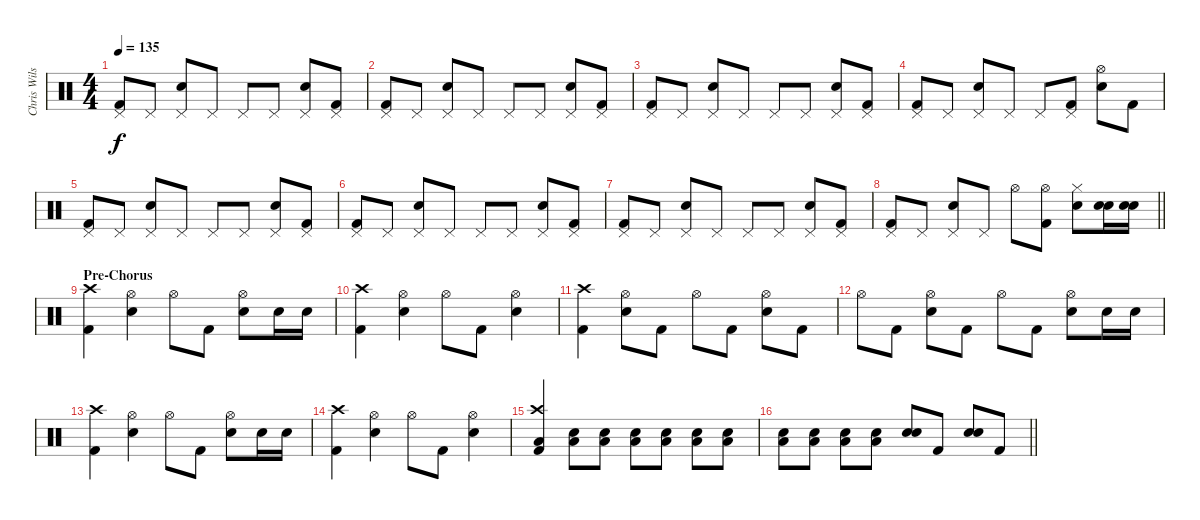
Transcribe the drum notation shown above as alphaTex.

\track ("Chris Wilson - Drums" "Chris Wils") {instrument percussion}
\staff {score}
\articulation defaults
\ts (4 4)
\tempo 135
\clef neutral
\ks c
("Pedal Hi-Hat (hit)" "Kick (hit) 2").8{dy f} "Pedal Hi-Hat (hit)".8 ("Pedal Hi-Hat (hit)" "Snare (hit) 2").8 "Pedal Hi-Hat (hit)".8 "Pedal Hi-Hat (hit)".8 "Pedal Hi-Hat (hit)".8 ("Pedal Hi-Hat (hit)" "Snare (hit) 2").8 ("Pedal Hi-Hat (hit)" "Kick (hit) 2").8 |
("Pedal Hi-Hat (hit)" "Kick (hit) 2").8 "Pedal Hi-Hat (hit)".8 ("Pedal Hi-Hat (hit)" "Snare (hit) 2").8 "Pedal Hi-Hat (hit)".8 "Pedal Hi-Hat (hit)".8 "Pedal Hi-Hat (hit)".8 ("Pedal Hi-Hat (hit)" "Snare (hit) 2").8 ("Pedal Hi-Hat (hit)" "Kick (hit) 2").8 |
("Pedal Hi-Hat (hit)" "Kick (hit) 2").8 "Pedal Hi-Hat (hit)".8 ("Pedal Hi-Hat (hit)" "Snare (hit) 2").8 "Pedal Hi-Hat (hit)".8 "Pedal Hi-Hat (hit)".8 "Pedal Hi-Hat (hit)".8 ("Pedal Hi-Hat (hit)" "Snare (hit) 2").8 ("Pedal Hi-Hat (hit)" "Kick (hit) 2").8 |
("Pedal Hi-Hat (hit)" "Kick (hit) 2").8 "Pedal Hi-Hat (hit)".8 ("Pedal Hi-Hat (hit)" "Snare (hit) 2").8 "Pedal Hi-Hat (hit)".8 "Pedal Hi-Hat (hit)".8 ("Pedal Hi-Hat (hit)" "Kick (hit) 2").8 ("Hi-Hat (open)" "Snare (hit) 2").8 "Kick (hit) 2".8 |
("Pedal Hi-Hat (hit)" "Kick (hit) 2").8 "Pedal Hi-Hat (hit)".8 ("Pedal Hi-Hat (hit)" "Snare (hit) 2").8 "Pedal Hi-Hat (hit)".8 "Pedal Hi-Hat (hit)".8 "Pedal Hi-Hat (hit)".8 ("Pedal Hi-Hat (hit)" "Snare (hit) 2").8 ("Pedal Hi-Hat (hit)" "Kick (hit) 2").8 |
("Pedal Hi-Hat (hit)" "Kick (hit) 2").8 "Pedal Hi-Hat (hit)".8 ("Pedal Hi-Hat (hit)" "Snare (hit) 2").8 "Pedal Hi-Hat (hit)".8 "Pedal Hi-Hat (hit)".8 "Pedal Hi-Hat (hit)".8 ("Pedal Hi-Hat (hit)" "Snare (hit) 2").8 ("Pedal Hi-Hat (hit)" "Kick (hit) 2").8 |
("Pedal Hi-Hat (hit)" "Kick (hit) 2").8 "Pedal Hi-Hat (hit)".8 ("Pedal Hi-Hat (hit)" "Snare (hit) 2").8 "Pedal Hi-Hat (hit)".8 "Pedal Hi-Hat (hit)".8 "Pedal Hi-Hat (hit)".8 ("Pedal Hi-Hat (hit)" "Snare (hit) 2").8 ("Pedal Hi-Hat (hit)" "Kick (hit) 2").8 |
\barLineRight lightlight
("Pedal Hi-Hat (hit)" "Kick (hit) 2").8 "Pedal Hi-Hat (hit)".8 ("Pedal Hi-Hat (hit)" "Snare (hit) 2").8 "Pedal Hi-Hat (hit)".8 "Hi-Hat (open)".8 ("Hi-Hat (open)" "Kick (hit) 2").8 ("Hi-Hat (closed)" "Snare (hit) 2").8 ("Snare (hit) 2" "Snare (hit) 2").16 ("Snare (hit) 2" "Snare (hit) 2").16 |
\section ("" "Pre-Chorus")
("Crash high (hit)" "Kick (hit) 2").4 ("Hi-Hat (open)" "Snare (hit) 2").4 "Hi-Hat (open)".8 "Kick (hit) 2".8 ("Hi-Hat (open)" "Snare (hit) 2").8 "Snare (hit) 2".16 "Snare (hit) 2".16 |
("Crash high (hit)" "Kick (hit) 2").4 ("Hi-Hat (open)" "Snare (hit) 2").4 "Hi-Hat (open)".8 "Kick (hit) 2".8 ("Hi-Hat (open)" "Snare (hit) 2").4 |
("Crash high (hit)" "Kick (hit) 2").4 ("Hi-Hat (open)" "Snare (hit) 2").8 "Kick (hit) 2".8 "Hi-Hat (open)".8 "Kick (hit) 2".8 ("Hi-Hat (open)" "Snare (hit) 2").8 "Kick (hit) 2".8 |
"Hi-Hat (open)".8 "Kick (hit) 2".8 ("Hi-Hat (open)" "Snare (hit) 2").8 "Kick (hit) 2".8 "Hi-Hat (open)".8 "Kick (hit) 2".8 ("Hi-Hat (open)" "Snare (hit) 2").8 "Snare (hit) 2".16 "Snare (hit) 2".16 |
("Crash high (hit)" "Kick (hit) 2").4 ("Hi-Hat (open)" "Snare (hit) 2").4 "Hi-Hat (open)".8 "Kick (hit) 2".8 ("Hi-Hat (open)" "Snare (hit) 2").8 "Snare (hit) 2".16 "Snare (hit) 2".16 |
("Crash high (hit)" "Kick (hit) 2").4 ("Hi-Hat (open)" "Snare (hit) 2").4 "Hi-Hat (open)".8 "Kick (hit) 2".8 ("Hi-Hat (open)" "Snare (hit) 2").4 |
("Crash high (hit)" "Low Floor Tom (hit)" "Kick (hit) 2").4 ("Snare (hit) 2" "Low Floor Tom (hit)").8 ("Snare (hit) 2" "Low Floor Tom (hit)").8 ("Snare (hit) 2" "Low Floor Tom (hit)").8 ("Snare (hit) 2" "Low Floor Tom (hit)").8 ("Snare (hit) 2" "Low Floor Tom (hit)").8 ("Snare (hit) 2" "Low Floor Tom (hit)").8 |
\barLineRight lightlight
("Snare (hit) 2" "Low Floor Tom (hit)").8 ("Snare (hit) 2" "Low Floor Tom (hit)").8 ("Snare (hit) 2" "Low Floor Tom (hit)").8 ("Snare (hit) 2" "Low Floor Tom (hit)").8 ("Snare (hit) 2" "Snare (hit) 2").8 "Kick (hit) 2".8 ("Snare (hit) 2" "Snare (hit) 2").8 "Kick (hit) 2".8
